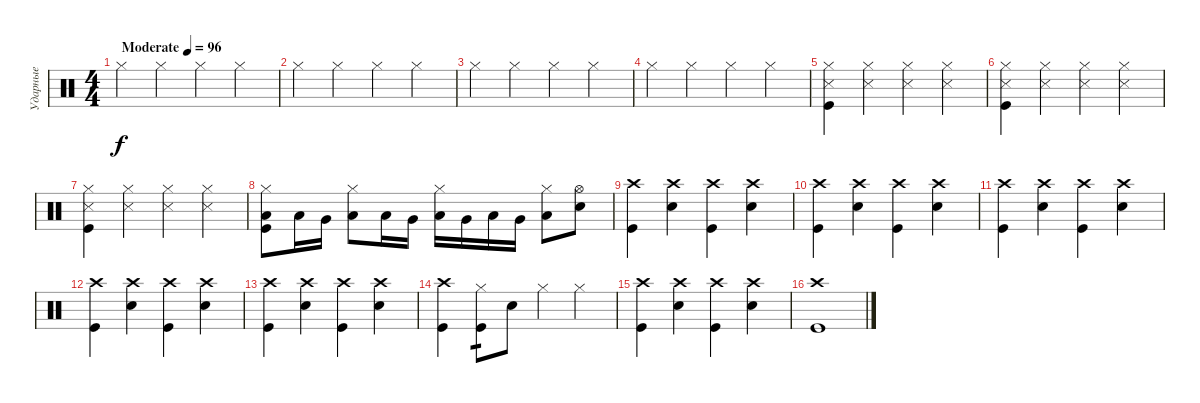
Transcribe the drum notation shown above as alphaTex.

\track ("Ударные" "Ударные") {instrument percussion}
\staff {score}
\articulation defaults
\ts (4 4)
\tempo (96 "Moderate")
\clef neutral
\ks c "Hi-Hat (closed)".4{dy f} "Hi-Hat (closed)".4 "Hi-Hat (closed)".4 "Hi-Hat (closed)".4
|
"Hi-Hat (closed)".4 "Hi-Hat (closed)".4 "Hi-Hat (closed)".4 "Hi-Hat (closed)".4 |
"Hi-Hat (closed)".4 "Hi-Hat (closed)".4 "Hi-Hat (closed)".4 "Hi-Hat (closed)".4 |
"Hi-Hat (closed)".4 "Hi-Hat (closed)".4 "Hi-Hat (closed)".4 "Hi-Hat (closed)".4 |
("Hi-Hat (closed)" "Metronome (hit)" "Kick (hit)").4 ("Hi-Hat (closed)" "Metronome (hit)").4 ("Hi-Hat (closed)" "Metronome (hit)").4 ("Hi-Hat (closed)" "Metronome (hit)").4 |
("Hi-Hat (closed)" "Metronome (hit)" "Kick (hit)").4 ("Hi-Hat (closed)" "Metronome (hit)").4 ("Hi-Hat (closed)" "Metronome (hit)").4 ("Hi-Hat (closed)" "Metronome (hit)").4 |
("Hi-Hat (closed)" "Metronome (hit)" "Kick (hit)").4 ("Hi-Hat (closed)" "Metronome (hit)").4 ("Hi-Hat (closed)" "Metronome (hit)").4 ("Hi-Hat (closed)" "Metronome (hit)").4 |
("Hi-Hat (closed)" "Low Floor Tom (hit)" "Kick (hit)").8 "Low Floor Tom (hit)".16 "Very Low Tom (hit)".16 ("Hi-Hat (closed)" "Low Floor Tom (hit)").8 "Low Floor Tom (hit)".16 "Very Low Tom (hit)".16 ("Hi-Hat (closed)" "Low Floor Tom (hit)").16 "Very Low Tom (hit)".16 "Low Floor Tom (hit)".16 "Very Low Tom (hit)".16 ("Hi-Hat (closed)" "Low Floor Tom (hit)").8 ("Hi-Hat (open)" "Electric Snare (hit)").8 |
("Crash high (hit)" "Kick (hit)").4 ("Crash high (hit)" "Electric Snare (hit)").4 ("Crash high (hit)" "Kick (hit)").4 ("Crash high (hit)" "Electric Snare (hit)").4 |
("Crash high (hit)" "Kick (hit)").4 ("Crash high (hit)" "Electric Snare (hit)").4 ("Crash high (hit)" "Kick (hit)").4 ("Crash high (hit)" "Electric Snare (hit)").4 |
("Crash high (hit)" "Kick (hit)").4 ("Crash high (hit)" "Electric Snare (hit)").4 ("Crash high (hit)" "Kick (hit)").4 ("Crash high (hit)" "Electric Snare (hit)").4 |
("Crash high (hit)" "Kick (hit)").4 ("Crash high (hit)" "Electric Snare (hit)").4 ("Crash high (hit)" "Kick (hit)").4 ("Crash high (hit)" "Electric Snare (hit)").4 |
("Crash high (hit)" "Kick (hit)").4 ("Crash high (hit)" "Electric Snare (hit)").4 ("Crash high (hit)" "Kick (hit)").4 ("Crash high (hit)" "Electric Snare (hit)").4 |
("Crash high (hit)" "Kick (hit)").4 ("Hi-Hat (closed)" "Kick (hit)").8{tp 1} "Electric Snare (hit)".8 "Hi-Hat (closed)".4 "Hi-Hat (closed)".4 |
("Crash high (hit)" "Kick (hit)").4 ("Crash high (hit)" "Electric Snare (hit)").4 ("Crash high (hit)" "Kick (hit)").4 ("Crash high (hit)" "Electric Snare (hit)").4 |
("Crash high (hit)" "Kick (hit)").1
